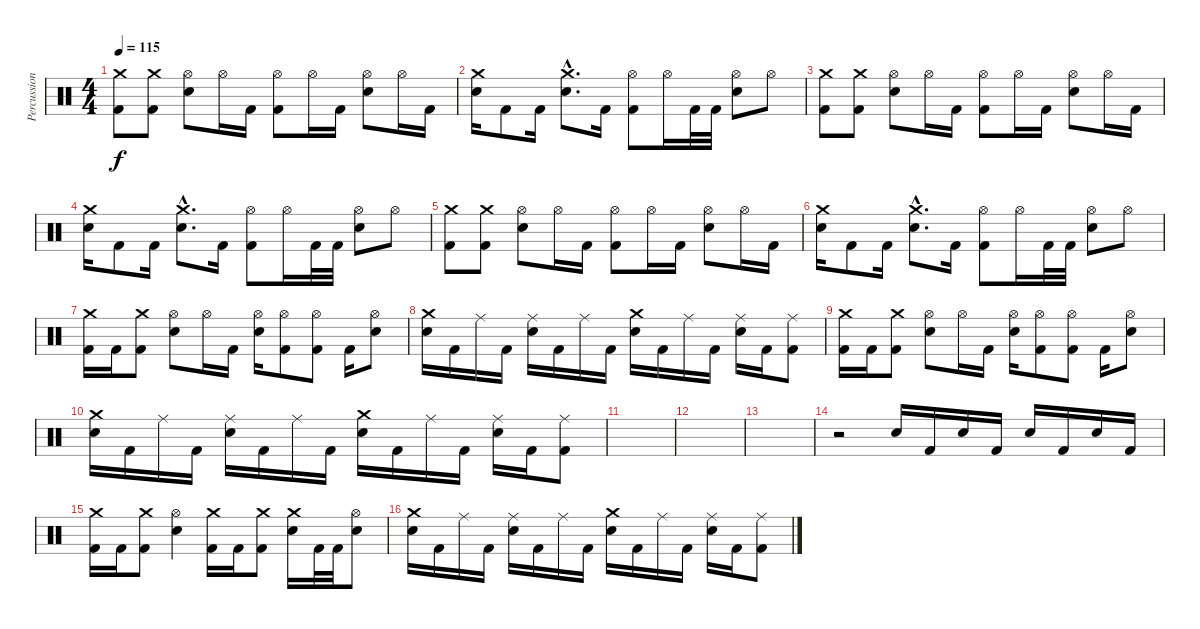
\track ("Percussion" "Percussion") {instrument percussion}
\staff {score}
\articulation defaults
\ts (4 4)
\tempo 115
\clef neutral
\ks c
("Crash medium (hit)" "Kick (hit) 2").8{dy f} ("Crash medium (hit)" "Kick (hit) 2").8 ("Hi-Hat (open)" "Snare (hit) 2").8 "Hi-Hat (open)".16 "Kick (hit) 2".16 ("Hi-Hat (open)" "Kick (hit) 2").8 "Hi-Hat (open)".16 "Kick (hit) 2".16 ("Hi-Hat (open)" "Snare (hit) 2").8 "Hi-Hat (open)".16 "Kick (hit) 2".16 |
("Crash medium (hit)" "Snare (hit) 2").16 "Kick (hit) 2".8 "Kick (hit) 2".16 ("Crash medium (hit)"{hac} "Snare (hit) 2"{hac}).8{d} "Kick (hit) 2".16 ("Hi-Hat (open)" "Kick (hit) 2").8 "Hi-Hat (open)".16 "Kick (hit) 2".32 "Kick (hit) 2".32 ("Hi-Hat (open)" "Snare (hit) 2").8 "Hi-Hat (open)".8 |
("Crash medium (hit)" "Kick (hit) 2").8 ("Crash medium (hit)" "Kick (hit) 2").8 ("Hi-Hat (open)" "Snare (hit) 2").8 "Hi-Hat (open)".16 "Kick (hit) 2".16 ("Hi-Hat (open)" "Kick (hit) 2").8 "Hi-Hat (open)".16 "Kick (hit) 2".16 ("Hi-Hat (open)" "Snare (hit) 2").8 "Hi-Hat (open)".16 "Kick (hit) 2".16 |
("Crash medium (hit)" "Snare (hit) 2").16 "Kick (hit) 2".8 "Kick (hit) 2".16 ("Crash medium (hit)"{hac} "Snare (hit) 2"{hac}).8{d} "Kick (hit) 2".16 ("Hi-Hat (open)" "Kick (hit) 2").8 "Hi-Hat (open)".16 "Kick (hit) 2".32 "Kick (hit) 2".32 ("Hi-Hat (open)" "Snare (hit) 2").8 "Hi-Hat (open)".8 |
("Crash medium (hit)" "Kick (hit) 2").8 ("Crash medium (hit)" "Kick (hit) 2").8 ("Hi-Hat (open)" "Snare (hit) 2").8 "Hi-Hat (open)".16 "Kick (hit) 2".16 ("Hi-Hat (open)" "Kick (hit) 2").8 "Hi-Hat (open)".16 "Kick (hit) 2".16 ("Hi-Hat (open)" "Snare (hit) 2").8 "Hi-Hat (open)".16 "Kick (hit) 2".16 |
("Crash medium (hit)" "Snare (hit) 2").16 "Kick (hit) 2".8 "Kick (hit) 2".16 ("Crash medium (hit)"{hac} "Snare (hit) 2"{hac}).8{d} "Kick (hit) 2".16 ("Hi-Hat (open)" "Kick (hit) 2").8 "Hi-Hat (open)".16 "Kick (hit) 2".32 "Kick (hit) 2".32 ("Hi-Hat (open)" "Snare (hit) 2").8 "Hi-Hat (open)".8 |
("Crash medium (hit)" "Kick (hit) 2").16 "Kick (hit) 2".16 ("Crash medium (hit)" "Kick (hit) 2").8 ("Hi-Hat (open)" "Snare (hit) 2").8 "Hi-Hat (open)".16 "Kick (hit) 2".16 ("Hi-Hat (open)" "Snare (hit) 2").16 ("Hi-Hat (open)" "Kick (hit) 2").8 ("Hi-Hat (open)" "Kick (hit) 2").8 "Kick (hit) 2".16 ("Hi-Hat (open)" "Snare (hit) 2").8 |
("Crash medium (hit)" "Snare (hit) 2").16 "Kick (hit) 2".16 "Ride (middle)".16 "Kick (hit) 2".16 ("Ride (middle)" "Snare (hit) 2").16 "Kick (hit) 2".16 "Ride (middle)".16 "Kick (hit) 2".16 ("Crash medium (hit)" "Snare (hit) 2").16 "Kick (hit) 2".16 "Ride (middle)".16 "Kick (hit) 2".16 ("Ride (middle)" "Snare (hit) 2").16 "Kick (hit) 2".16 ("Ride (middle)" "Kick (hit) 2").8 |
("Crash medium (hit)" "Kick (hit) 2").16 "Kick (hit) 2".16 ("Crash medium (hit)" "Kick (hit) 2").8 ("Hi-Hat (open)" "Snare (hit) 2").8 "Hi-Hat (open)".16 "Kick (hit) 2".16 ("Hi-Hat (open)" "Snare (hit) 2").16 ("Hi-Hat (open)" "Kick (hit) 2").8 ("Hi-Hat (open)" "Kick (hit) 2").8 "Kick (hit) 2".16 ("Hi-Hat (open)" "Snare (hit) 2").8 |
("Crash medium (hit)" "Snare (hit) 2").16 "Kick (hit) 2".16 "Ride (middle)".16 "Kick (hit) 2".16 ("Ride (middle)" "Snare (hit) 2").16 "Kick (hit) 2".16 "Ride (middle)".16 "Kick (hit) 2".16 ("Crash medium (hit)" "Snare (hit) 2").16 "Kick (hit) 2".16 "Ride (middle)".16 "Kick (hit) 2".16 ("Ride (middle)" "Snare (hit) 2").16 "Kick (hit) 2".16 ("Ride (middle)" "Kick (hit) 2").8 |
|
|
|
r.2 "Snare (hit) 2".16 "Kick (hit) 2".16 "Snare (hit) 2".16 "Kick (hit) 2".16 "Snare (hit) 2".16 "Kick (hit) 2".16 "Snare (hit) 2".16 "Kick (hit) 2".16 |
("Crash medium (hit)" "Kick (hit) 2").16 "Kick (hit) 2".16 ("Crash medium (hit)" "Kick (hit) 2").8 ("Hi-Hat (open)" "Snare (hit) 2").4 ("Crash medium (hit)" "Kick (hit) 2").16 "Kick (hit) 2".16 ("Crash medium (hit)" "Kick (hit) 2").8 ("Crash medium (hit)" "Snare (hit) 2").16 "Kick (hit) 2".32 "Kick (hit) 2".32 ("Hi-Hat (open)" "Snare (hit) 2").8 |
("Crash medium (hit)" "Snare (hit) 2").16 "Kick (hit) 2".16 "Ride (middle)".16 "Kick (hit) 2".16 ("Ride (middle)" "Snare (hit) 2").16 "Kick (hit) 2".16 "Ride (middle)".16 "Kick (hit) 2".16 ("Crash medium (hit)" "Snare (hit) 2").16 "Kick (hit) 2".16 "Ride (middle)".16 "Kick (hit) 2".16 ("Ride (middle)" "Snare (hit) 2").16 "Kick (hit) 2".16 ("Ride (middle)" "Kick (hit) 2").8
